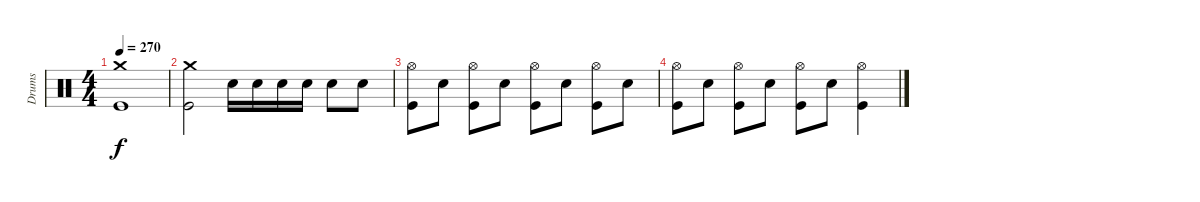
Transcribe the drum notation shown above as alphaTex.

\track ("Drums" "Drums") {instrument percussion}
\staff {score}
\articulation defaults
\ts (4 4)
\tempo 270
\clef neutral
\ks c
("Crash medium (hit)" "Kick (hit)").1{dy f} |
("Crash medium (hit)" "Kick (hit)").2 "Electric Snare (hit)".16 "Electric Snare (hit)".16 "Electric Snare (hit)".16 "Electric Snare (hit)".16 "Electric Snare (hit)".8 "Electric Snare (hit)".8 |
("Hi-Hat (open)" "Kick (hit)").8 "Electric Snare (hit)".8 ("Hi-Hat (open)" "Kick (hit)").8 "Electric Snare (hit)".8 ("Hi-Hat (open)" "Kick (hit)").8 "Electric Snare (hit)".8 ("Hi-Hat (open)" "Kick (hit)").8 "Electric Snare (hit)".8 |
("Hi-Hat (open)" "Kick (hit)").8 "Electric Snare (hit)".8 ("Hi-Hat (open)" "Kick (hit)").8 "Electric Snare (hit)".8 ("Hi-Hat (open)" "Kick (hit)").8 "Electric Snare (hit)".8 ("Hi-Hat (open)" "Kick (hit)").4
